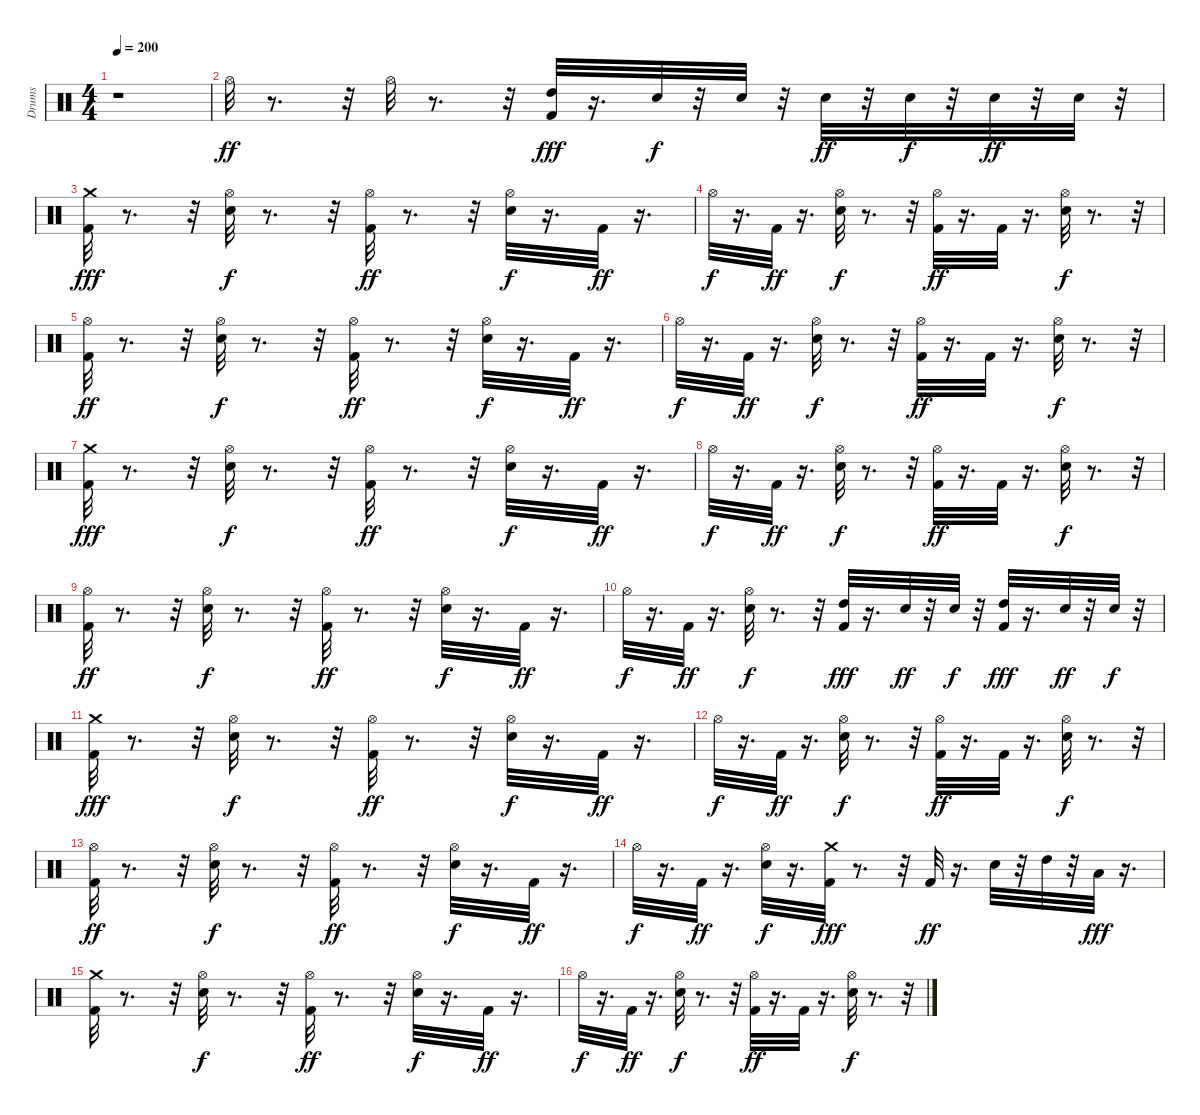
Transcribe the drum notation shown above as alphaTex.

\track ("Drums" "Drums") {instrument percussion}
\staff {score}
\articulation defaults
\ts (4 4)
\tempo 200
\clef neutral
\ks c
r.1{dy ff} |
"Hi-Hat (open)".32 r.8{d} r.32 "Hi-Hat (open)".32 r.8{d} r.32 ("Kick (hit) 2" "High Tom (hit)").32{dy fff} r.16{d} "Snare (hit) 2".32{dy f} r.32 "Snare (hit) 2".32 r.32 "Snare (hit) 2".32{dy ff} r.32 "Snare (hit) 2".32{dy f} r.32 "Snare (hit) 2".32{dy ff} r.32 "Snare (hit) 2".32 r.32 |
("Crash medium (hit)" "Kick (hit) 2").32{dy fff} r.8{d} r.32 ("Hi-Hat (open)" "Snare (hit) 2").32{dy f} r.8{d} r.32 ("Hi-Hat (open)" "Kick (hit) 2").32{dy ff} r.8{d} r.32 ("Hi-Hat (open)" "Snare (hit) 2").32{dy f} r.16{d} "Kick (hit) 2".32{dy ff} r.16{d} |
"Hi-Hat (open)".32{dy f} r.16{d} "Kick (hit) 2".32{dy ff} r.16{d} ("Snare (hit) 2" "Hi-Hat (open)").32{dy f} r.8{d} r.32 ("Hi-Hat (open)" "Kick (hit) 2").32{dy ff} r.16{d} "Kick (hit) 2".32 r.16{d} ("Hi-Hat (open)" "Snare (hit) 2").32{dy f} r.8{d} r.32 |
("Hi-Hat (open)" "Kick (hit) 2").32{dy ff} r.8{d} r.32 ("Hi-Hat (open)" "Snare (hit) 2").32{dy f} r.8{d} r.32 ("Hi-Hat (open)" "Kick (hit) 2").32{dy ff} r.8{d} r.32 ("Hi-Hat (open)" "Snare (hit) 2").32{dy f} r.16{d} "Kick (hit) 2".32{dy ff} r.16{d} |
"Hi-Hat (open)".32{dy f} r.16{d} "Kick (hit) 2".32{dy ff} r.16{d} ("Hi-Hat (open)" "Snare (hit) 2").32{dy f} r.8{d} r.32 ("Hi-Hat (open)" "Kick (hit) 2").32{dy ff} r.16{d} "Kick (hit) 2".32 r.16{d} ("Hi-Hat (open)" "Snare (hit) 2").32{dy f} r.8{d} r.32 |
("Crash medium (hit)" "Kick (hit) 2").32{dy fff} r.8{d} r.32 ("Hi-Hat (open)" "Snare (hit) 2").32{dy f} r.8{d} r.32 ("Hi-Hat (open)" "Kick (hit) 2").32{dy ff} r.8{d} r.32 ("Hi-Hat (open)" "Snare (hit) 2").32{dy f} r.16{d} "Kick (hit) 2".32{dy ff} r.16{d} |
"Hi-Hat (open)".32{dy f} r.16{d} "Kick (hit) 2".32{dy ff} r.16{d} ("Hi-Hat (open)" "Snare (hit) 2").32{dy f} r.8{d} r.32 ("Hi-Hat (open)" "Kick (hit) 2").32{dy ff} r.16{d} "Kick (hit) 2".32 r.16{d} ("Hi-Hat (open)" "Snare (hit) 2").32{dy f} r.8{d} r.32 |
("Hi-Hat (open)" "Kick (hit) 2").32{dy ff} r.8{d} r.32 ("Hi-Hat (open)" "Snare (hit) 2").32{dy f} r.8{d} r.32 ("Hi-Hat (open)" "Kick (hit) 2").32{dy ff} r.8{d} r.32 ("Hi-Hat (open)" "Snare (hit) 2").32{dy f} r.16{d} "Kick (hit) 2".32{dy ff} r.16{d} |
"Hi-Hat (open)".32{dy f} r.16{d} "Kick (hit) 2".32{dy ff} r.16{d} ("Hi-Hat (open)" "Snare (hit) 2").32{dy f} r.8{d} r.32 ("High Tom (hit)" "Kick (hit) 2").32{dy fff} r.16{d} "Snare (hit) 2".32{dy ff} r.32 "Snare (hit) 2".32{dy f} r.32 ("High Tom (hit)" "Kick (hit) 2").32{dy fff} r.16{d} "Snare (hit) 2".32{dy ff} r.32 "Snare (hit) 2".32{dy f} r.32 |
("Crash medium (hit)" "Kick (hit) 2").32{dy fff} r.8{d} r.32 ("Hi-Hat (open)" "Snare (hit) 2").32{dy f} r.8{d} r.32 ("Hi-Hat (open)" "Kick (hit) 2").32{dy ff} r.8{d} r.32 ("Hi-Hat (open)" "Snare (hit) 2").32{dy f} r.16{d} "Kick (hit) 2".32{dy ff} r.16{d} |
"Hi-Hat (open)".32{dy f} r.16{d} "Kick (hit) 2".32{dy ff} r.16{d} ("Hi-Hat (open)" "Snare (hit) 2").32{dy f} r.8{d} r.32 ("Hi-Hat (open)" "Kick (hit) 2").32{dy ff} r.16{d} "Kick (hit) 2".32 r.16{d} ("Hi-Hat (open)" "Snare (hit) 2").32{dy f} r.8{d} r.32 |
("Hi-Hat (open)" "Kick (hit) 2").32{dy ff} r.8{d} r.32 ("Hi-Hat (open)" "Snare (hit) 2").32{dy f} r.8{d} r.32 ("Hi-Hat (open)" "Kick (hit) 2").32{dy ff} r.8{d} r.32 ("Hi-Hat (open)" "Snare (hit) 2").32{dy f} r.16{d} "Kick (hit) 2".32{dy ff} r.16{d} |
"Hi-Hat (open)".32{dy f} r.16{d} "Kick (hit) 2".32{dy ff} r.16{d} ("Hi-Hat (open)" "Snare (hit) 2").32{dy f} r.16{d} ("Crash medium (hit)" "Kick (hit) 2").32{dy fff} r.8{d} r.32 "Kick (hit) 2".32{dy ff} r.16{d} "Snare (hit) 2".32 r.32 "High Tom (hit)".32 r.32 "Low Floor Tom (hit)".32{dy fff} r.16{d} |
("Crash medium (hit)" "Kick (hit) 2").32 r.8{d} r.32 ("Hi-Hat (open)" "Snare (hit) 2").32{dy f} r.8{d} r.32 ("Hi-Hat (open)" "Kick (hit) 2").32{dy ff} r.8{d} r.32 ("Hi-Hat (open)" "Snare (hit) 2").32{dy f} r.16{d} "Kick (hit) 2".32{dy ff} r.16{d} |
"Hi-Hat (open)".32{dy f} r.16{d} "Kick (hit) 2".32{dy ff} r.16{d} ("Hi-Hat (open)" "Snare (hit) 2").32{dy f} r.8{d} r.32 ("Hi-Hat (open)" "Kick (hit) 2").32{dy ff} r.16{d} "Kick (hit) 2".32 r.16{d} ("Hi-Hat (open)" "Snare (hit) 2").32{dy f} r.8{d} r.32
